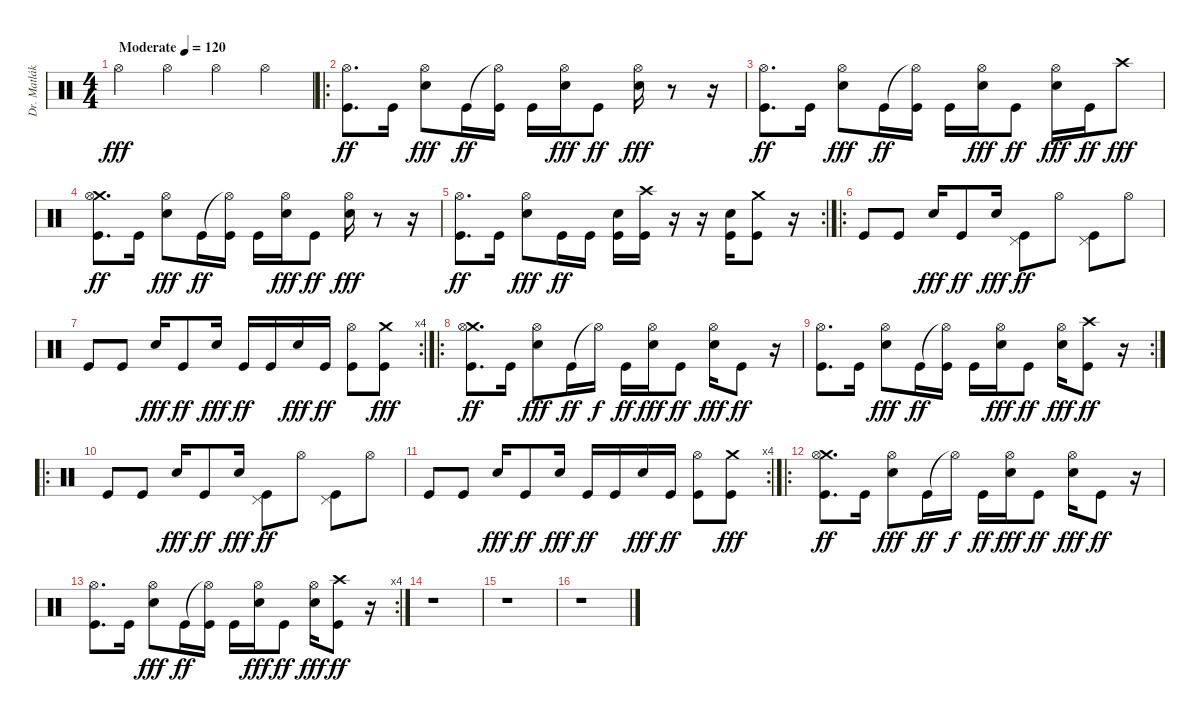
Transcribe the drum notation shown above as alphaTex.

\track ("Dr. Matlák" "Dr. Matlák") {instrument percussion}
\staff {score}
\articulation defaults
\ts (4 4)
\tempo (120 "Moderate")
\clef neutral
\ks c "Hi-Hat (open)".4{dy fff} "Hi-Hat (open)".4 "Hi-Hat (open)".4 "Hi-Hat (open)".4
|
\ro
("Hi-Hat (open)" "Kick (hit)").8{d dy ff} "Kick (hit)".16 ("Hi-Hat (open)" "Electric Snare (hit)").8{dy fff} "Kick (hit)".16{dy ff} ("Hi-Hat (open)"{t} "Kick (hit)").16 "Kick (hit)".16 ("Hi-Hat (open)" "Electric Snare (hit)").16{dy fff} "Kick (hit)".8{dy ff} ("Hi-Hat (open)" "Electric Snare (hit)").16{dy fff} r.8 r.16 |
("Hi-Hat (open)" "Kick (hit)").8{d dy ff} "Kick (hit)".16 ("Hi-Hat (open)" "Electric Snare (hit)").8{dy fff} "Kick (hit)".16{dy ff} ("Hi-Hat (open)"{t} "Kick (hit)").16 "Kick (hit)".16 ("Hi-Hat (open)" "Electric Snare (hit)").16{dy fff} "Kick (hit)".8{dy ff} ("Hi-Hat (open)" "Electric Snare (hit)").16{dy fff} "Kick (hit)".16{dy ff} "Crash high (hit)".8{dy fff} |
("Crash medium (hit)" "Hi-Hat (open)" "Kick (hit)").8{d dy ff} "Kick (hit)".16 ("Hi-Hat (open)" "Electric Snare (hit)").8{dy fff} "Kick (hit)".16{dy ff} ("Hi-Hat (open)"{t} "Kick (hit)").16 "Kick (hit)".16 ("Hi-Hat (open)" "Electric Snare (hit)").16{dy fff} "Kick (hit)".8{dy ff} ("Hi-Hat (open)" "Electric Snare (hit)").16{dy fff} r.8 r.16 |
\rc 2
("Hi-Hat (open)" "Kick (hit)").8{d dy ff} "Kick (hit)".16 ("Hi-Hat (open)" "Electric Snare (hit)").8{dy fff} "Kick (hit)".16{dy ff} "Kick (hit)".16 ("Electric Snare (hit)" "Kick (hit)").16 ("Crash high (hit)" "Kick (hit)").16 r.16 r.16 ("Electric Snare (hit)" "Kick (hit)").16 ("Crash medium (hit)" "Kick (hit)").8 r.16 |
\ro "Kick (hit)".8 "Kick (hit)".8 "Electric Snare (hit)".16{dy fff} "Kick (hit)".8{dy ff} "Electric Snare (hit)".16{dy fff}
("Pedal Hi-Hat (hit)" "Kick (hit)").8{dy ff} "Hi-Hat (open)".8 ("Pedal Hi-Hat (hit)" "Kick (hit)").8 "Hi-Hat (open)".8 |
\rc 4 "Kick (hit)".8 "Kick (hit)".8 "Electric Snare (hit)".16{dy fff} "Kick (hit)".8{dy ff} "Electric Snare (hit)".16{dy fff} "Kick (hit)".16{dy ff} "Kick (hit)".16 "Electric Snare (hit)".16{dy fff} "Kick (hit)".16{dy ff}
("Hi-Hat (open)" "Kick (hit)").8 ("Crash medium (hit)" "Kick (hit)").8{dy fff} |
\ro
("Crash medium (hit)" "Hi-Hat (open)" "Kick (hit)").8{d dy ff} "Kick (hit)".16 ("Hi-Hat (open)" "Electric Snare (hit)").8{dy fff} "Kick (hit)".16{dy ff} "Hi-Hat (open)"{t}.16{dy f} "Kick (hit)".16{dy ff} ("Hi-Hat (open)" "Electric Snare (hit)").16{dy fff} "Kick (hit)".8{dy ff} ("Hi-Hat (open)" "Electric Snare (hit)").16{dy fff} "Kick (hit)".8{dy ff} r.16 |
\rc 2
("Hi-Hat (open)" "Kick (hit)").8{d} "Kick (hit)".16 ("Hi-Hat (open)" "Electric Snare (hit)").8{dy fff} "Kick (hit)".16{dy ff} ("Hi-Hat (open)"{t} "Kick (hit)").16 "Kick (hit)".16 ("Hi-Hat (open)" "Electric Snare (hit)").16{dy fff} "Kick (hit)".8{dy ff} ("Hi-Hat (open)" "Electric Snare (hit)").16{dy fff} ("Crash high (hit)" "Kick (hit)").8{dy ff} r.16 |
\ro "Kick (hit)".8 "Kick (hit)".8 "Electric Snare (hit)".16{dy fff} "Kick (hit)".8{dy ff} "Electric Snare (hit)".16{dy fff}
("Pedal Hi-Hat (hit)" "Kick (hit)").8{dy ff} "Hi-Hat (open)".8 ("Pedal Hi-Hat (hit)" "Kick (hit)").8 "Hi-Hat (open)".8 |
\rc 4 "Kick (hit)".8 "Kick (hit)".8 "Electric Snare (hit)".16{dy fff} "Kick (hit)".8{dy ff} "Electric Snare (hit)".16{dy fff} "Kick (hit)".16{dy ff} "Kick (hit)".16 "Electric Snare (hit)".16{dy fff} "Kick (hit)".16{dy ff}
("Hi-Hat (open)" "Kick (hit)").8 ("Crash medium (hit)" "Kick (hit)").8{dy fff} |
\ro
("Crash medium (hit)" "Hi-Hat (open)" "Kick (hit)").8{d dy ff} "Kick (hit)".16 ("Hi-Hat (open)" "Electric Snare (hit)").8{dy fff} "Kick (hit)".16{dy ff} "Hi-Hat (open)"{t}.16{dy f} "Kick (hit)".16{dy ff} ("Hi-Hat (open)" "Electric Snare (hit)").16{dy fff} "Kick (hit)".8{dy ff} ("Hi-Hat (open)" "Electric Snare (hit)").16{dy fff} "Kick (hit)".8{dy ff} r.16 |
\rc 4
("Hi-Hat (open)" "Kick (hit)").8{d} "Kick (hit)".16 ("Hi-Hat (open)" "Electric Snare (hit)").8{dy fff} "Kick (hit)".16{dy ff} ("Hi-Hat (open)"{t} "Kick (hit)").16 "Kick (hit)".16 ("Hi-Hat (open)" "Electric Snare (hit)").16{dy fff} "Kick (hit)".8{dy ff} ("Hi-Hat (open)" "Electric Snare (hit)").16{dy fff} ("Crash high (hit)" "Kick (hit)").8{dy ff} r.16 |
r.1 |
r.1 |
r.1
